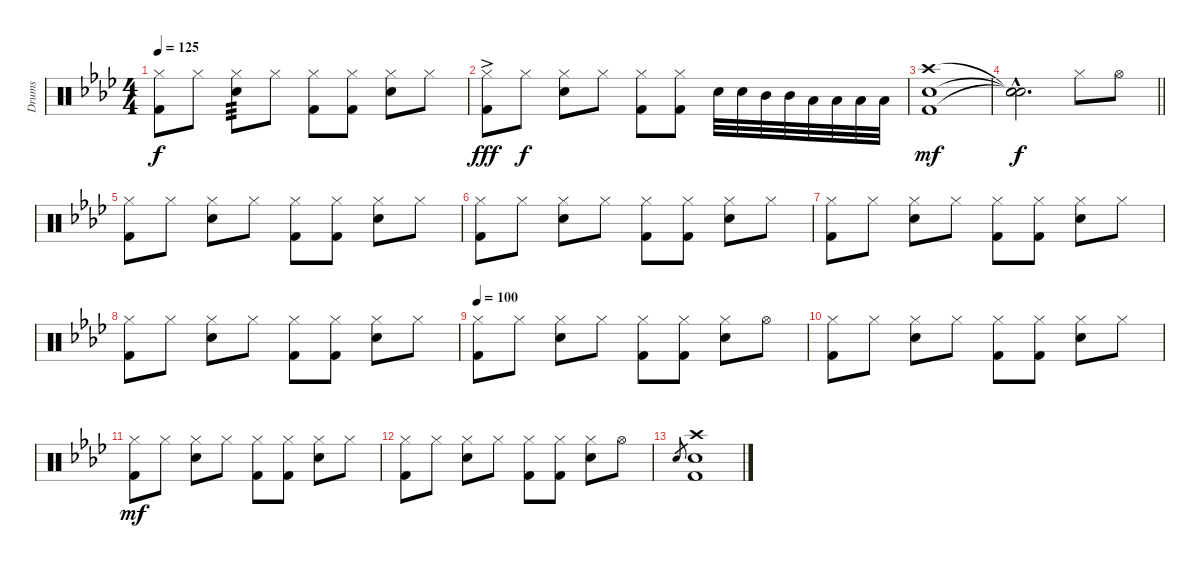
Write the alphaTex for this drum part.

\track ("Drums" "Drums") {instrument percussion}
\staff {score}
\articulation defaults
\ts (4 4)
\tempo 125
\clef neutral
\ks ab
("Hi-Hat (closed)" "Kick (hit) 2").8{dy f} "Hi-Hat (closed)".8 ("Hi-Hat (closed)" "Snare (hit) 2").8{tp 3} "Hi-Hat (closed)".8 ("Hi-Hat (closed)" "Kick (hit) 2").8 ("Hi-Hat (closed)" "Kick (hit) 2").8 ("Hi-Hat (closed)" "Snare (hit) 2").8 "Hi-Hat (closed)".8 |
("Hi-Hat (closed)"{ac} "Kick (hit) 2").8{dy fff} "Hi-Hat (closed)".8{dy f} ("Hi-Hat (closed)" "Snare (hit) 2").8 "Hi-Hat (closed)".8 ("Hi-Hat (closed)" "Kick (hit) 2").8 ("Hi-Hat (closed)" "Kick (hit) 2").8 "Snare (hit) 2".32 "Snare (hit) 2".32 "Mid Tom (hit)".32 "Mid Tom (hit)".32 "Low Tom (hit)".32 "Low Tom (hit)".32 "Low Floor Tom (hit)".32 "Low Floor Tom (hit)".32 |
("Crash high (hit)" "Snare (hit) 2" "Kick (hit) 2").1{dy mf} |
\barLineRight lightlight
("Snare (hit)"{hac t} "Snare (hit)"{hac t} "Snare (hit)"{hac t}).2{d dy f} "Hi-Hat (closed)".8 "Hi-Hat (open)".8 |
("Hi-Hat (closed)" "Kick (hit) 2").8 "Hi-Hat (closed)".8 ("Hi-Hat (closed)" "Snare (hit) 2").8 "Hi-Hat (closed)".8 ("Hi-Hat (closed)" "Kick (hit) 2").8 ("Hi-Hat (closed)" "Kick (hit) 2").8 ("Hi-Hat (closed)" "Snare (hit) 2").8 "Hi-Hat (closed)".8 |
("Hi-Hat (closed)" "Kick (hit) 2").8 "Hi-Hat (closed)".8 ("Hi-Hat (closed)" "Snare (hit) 2").8 "Hi-Hat (closed)".8 ("Hi-Hat (closed)" "Kick (hit) 2").8 ("Hi-Hat (closed)" "Kick (hit) 2").8 ("Hi-Hat (closed)" "Snare (hit) 2").8 "Hi-Hat (closed)".8 |
("Hi-Hat (closed)" "Kick (hit) 2").8 "Hi-Hat (closed)".8 ("Hi-Hat (closed)" "Snare (hit) 2").8 "Hi-Hat (closed)".8 ("Hi-Hat (closed)" "Kick (hit) 2").8 ("Hi-Hat (closed)" "Kick (hit) 2").8 ("Hi-Hat (closed)" "Snare (hit) 2").8 "Hi-Hat (closed)".8 |
("Hi-Hat (closed)" "Kick (hit) 2").8 "Hi-Hat (closed)".8 ("Hi-Hat (closed)" "Snare (hit) 2").8 "Hi-Hat (closed)".8 ("Hi-Hat (closed)" "Kick (hit) 2").8 ("Hi-Hat (closed)" "Kick (hit) 2").8 ("Hi-Hat (closed)" "Snare (hit) 2").8 "Hi-Hat (closed)".8 |
\tempo 100
("Hi-Hat (closed)" "Kick (hit) 2").8 "Hi-Hat (closed)".8 ("Hi-Hat (closed)" "Snare (hit) 2").8 "Hi-Hat (closed)".8 ("Hi-Hat (closed)" "Kick (hit) 2").8 ("Hi-Hat (closed)" "Kick (hit) 2").8 ("Hi-Hat (closed)" "Snare (hit) 2").8 "Hi-Hat (open)".8 |
("Hi-Hat (closed)" "Kick (hit) 2").8 "Hi-Hat (closed)".8 ("Hi-Hat (closed)" "Snare (hit) 2").8 "Hi-Hat (closed)".8 ("Hi-Hat (closed)" "Kick (hit) 2").8 ("Hi-Hat (closed)" "Kick (hit) 2").8 ("Hi-Hat (closed)" "Snare (hit) 2").8 "Hi-Hat (closed)".8 |
("Hi-Hat (closed)" "Kick (hit) 2").8{dy mf} "Hi-Hat (closed)".8 ("Hi-Hat (closed)" "Snare (hit) 2").8 "Hi-Hat (closed)".8 ("Hi-Hat (closed)" "Kick (hit) 2").8 ("Hi-Hat (closed)" "Kick (hit) 2").8 ("Hi-Hat (closed)" "Snare (hit) 2").8 "Hi-Hat (closed)".8 |
("Hi-Hat (closed)" "Kick (hit) 2").8 "Hi-Hat (closed)".8 ("Hi-Hat (closed)" "Snare (hit) 2").8 "Hi-Hat (closed)".8 ("Hi-Hat (closed)" "Kick (hit) 2").8 ("Hi-Hat (closed)" "Kick (hit) 2").8 ("Hi-Hat (closed)" "Snare (hit) 2").8 "Hi-Hat (open)".8 |
"Electric Snare (hit)".8{gr} ("Crash high (hit)" "Electric Snare (hit)" "Kick (hit) 2").1
